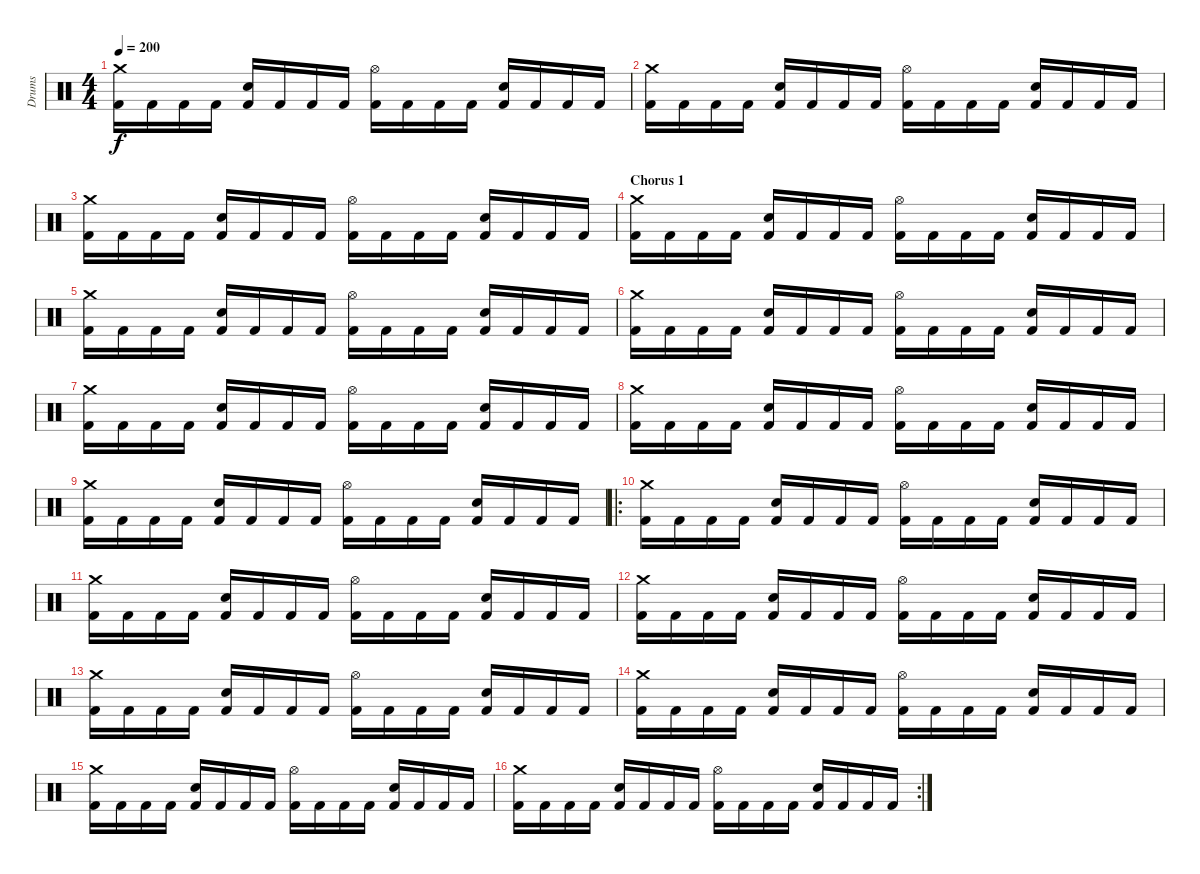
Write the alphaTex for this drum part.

\track ("Drums" "Drums") {instrument percussion}
\staff {score}
\articulation defaults
\ts (4 4)
\tempo 200
\clef neutral
\ks c
("Kick (hit) 2" "Crash medium (hit)").16{dy f} "Kick (hit) 2".16 "Kick (hit) 2".16 "Kick (hit) 2".16 ("Kick (hit) 2" "Snare (hit) 2").16 "Kick (hit) 2".16 "Kick (hit) 2".16 "Kick (hit) 2".16 ("Kick (hit) 2" "Hi-Hat (open)").16 "Kick (hit) 2".16 "Kick (hit) 2".16 "Kick (hit) 2".16 ("Kick (hit) 2" "Snare (hit) 2").16 "Kick (hit) 2".16 "Kick (hit) 2".16 "Kick (hit) 2".16 |
("Kick (hit) 2" "Crash medium (hit)").16 "Kick (hit) 2".16 "Kick (hit) 2".16 "Kick (hit) 2".16 ("Kick (hit) 2" "Snare (hit) 2").16 "Kick (hit) 2".16 "Kick (hit) 2".16 "Kick (hit) 2".16 ("Kick (hit) 2" "Hi-Hat (open)").16 "Kick (hit) 2".16 "Kick (hit) 2".16 "Kick (hit) 2".16 ("Kick (hit) 2" "Snare (hit) 2").16 "Kick (hit) 2".16 "Kick (hit) 2".16 "Kick (hit) 2".16 |
("Kick (hit) 2" "Crash medium (hit)").16 "Kick (hit) 2".16 "Kick (hit) 2".16 "Kick (hit) 2".16 ("Kick (hit) 2" "Snare (hit) 2").16 "Kick (hit) 2".16 "Kick (hit) 2".16 "Kick (hit) 2".16 ("Kick (hit) 2" "Hi-Hat (open)").16 "Kick (hit) 2".16 "Kick (hit) 2".16 "Kick (hit) 2".16 ("Kick (hit) 2" "Snare (hit) 2").16 "Kick (hit) 2".16 "Kick (hit) 2".16 "Kick (hit) 2".16 |
\section ("" "Chorus 1")
("Kick (hit) 2" "Crash medium (hit)").16 "Kick (hit) 2".16 "Kick (hit) 2".16 "Kick (hit) 2".16 ("Kick (hit) 2" "Snare (hit) 2").16 "Kick (hit) 2".16 "Kick (hit) 2".16 "Kick (hit) 2".16 ("Kick (hit) 2" "Hi-Hat (open)").16 "Kick (hit) 2".16 "Kick (hit) 2".16 "Kick (hit) 2".16 ("Kick (hit) 2" "Snare (hit) 2").16 "Kick (hit) 2".16 "Kick (hit) 2".16 "Kick (hit) 2".16 |
("Kick (hit) 2" "Crash medium (hit)").16 "Kick (hit) 2".16 "Kick (hit) 2".16 "Kick (hit) 2".16 ("Kick (hit) 2" "Snare (hit) 2").16 "Kick (hit) 2".16 "Kick (hit) 2".16 "Kick (hit) 2".16 ("Kick (hit) 2" "Hi-Hat (open)").16 "Kick (hit) 2".16 "Kick (hit) 2".16 "Kick (hit) 2".16 ("Kick (hit) 2" "Snare (hit) 2").16 "Kick (hit) 2".16 "Kick (hit) 2".16 "Kick (hit) 2".16 |
("Kick (hit) 2" "Crash medium (hit)").16 "Kick (hit) 2".16 "Kick (hit) 2".16 "Kick (hit) 2".16 ("Kick (hit) 2" "Snare (hit) 2").16 "Kick (hit) 2".16 "Kick (hit) 2".16 "Kick (hit) 2".16 ("Kick (hit) 2" "Hi-Hat (open)").16 "Kick (hit) 2".16 "Kick (hit) 2".16 "Kick (hit) 2".16 ("Kick (hit) 2" "Snare (hit) 2").16 "Kick (hit) 2".16 "Kick (hit) 2".16 "Kick (hit) 2".16 |
("Kick (hit) 2" "Crash medium (hit)").16 "Kick (hit) 2".16 "Kick (hit) 2".16 "Kick (hit) 2".16 ("Kick (hit) 2" "Snare (hit) 2").16 "Kick (hit) 2".16 "Kick (hit) 2".16 "Kick (hit) 2".16 ("Kick (hit) 2" "Hi-Hat (open)").16 "Kick (hit) 2".16 "Kick (hit) 2".16 "Kick (hit) 2".16 ("Kick (hit) 2" "Snare (hit) 2").16 "Kick (hit) 2".16 "Kick (hit) 2".16 "Kick (hit) 2".16 |
("Kick (hit) 2" "Crash medium (hit)").16 "Kick (hit) 2".16 "Kick (hit) 2".16 "Kick (hit) 2".16 ("Kick (hit) 2" "Snare (hit) 2").16 "Kick (hit) 2".16 "Kick (hit) 2".16 "Kick (hit) 2".16 ("Kick (hit) 2" "Hi-Hat (open)").16 "Kick (hit) 2".16 "Kick (hit) 2".16 "Kick (hit) 2".16 ("Kick (hit) 2" "Snare (hit) 2").16 "Kick (hit) 2".16 "Kick (hit) 2".16 "Kick (hit) 2".16 |
("Kick (hit) 2" "Crash medium (hit)").16 "Kick (hit) 2".16 "Kick (hit) 2".16 "Kick (hit) 2".16 ("Kick (hit) 2" "Snare (hit) 2").16 "Kick (hit) 2".16 "Kick (hit) 2".16 "Kick (hit) 2".16 ("Kick (hit) 2" "Hi-Hat (open)").16 "Kick (hit) 2".16 "Kick (hit) 2".16 "Kick (hit) 2".16 ("Kick (hit) 2" "Snare (hit) 2").16 "Kick (hit) 2".16 "Kick (hit) 2".16 "Kick (hit) 2".16 |
\ro
("Kick (hit) 2" "Crash medium (hit)").16 "Kick (hit) 2".16 "Kick (hit) 2".16 "Kick (hit) 2".16 ("Kick (hit) 2" "Snare (hit) 2").16 "Kick (hit) 2".16 "Kick (hit) 2".16 "Kick (hit) 2".16 ("Kick (hit) 2" "Hi-Hat (open)").16 "Kick (hit) 2".16 "Kick (hit) 2".16 "Kick (hit) 2".16 ("Kick (hit) 2" "Snare (hit) 2").16 "Kick (hit) 2".16 "Kick (hit) 2".16 "Kick (hit) 2".16 |
("Kick (hit) 2" "Crash medium (hit)").16 "Kick (hit) 2".16 "Kick (hit) 2".16 "Kick (hit) 2".16 ("Kick (hit) 2" "Snare (hit) 2").16 "Kick (hit) 2".16 "Kick (hit) 2".16 "Kick (hit) 2".16 ("Kick (hit) 2" "Hi-Hat (open)").16 "Kick (hit) 2".16 "Kick (hit) 2".16 "Kick (hit) 2".16 ("Kick (hit) 2" "Snare (hit) 2").16 "Kick (hit) 2".16 "Kick (hit) 2".16 "Kick (hit) 2".16 |
("Kick (hit) 2" "Crash medium (hit)").16 "Kick (hit) 2".16 "Kick (hit) 2".16 "Kick (hit) 2".16 ("Kick (hit) 2" "Snare (hit) 2").16 "Kick (hit) 2".16 "Kick (hit) 2".16 "Kick (hit) 2".16 ("Kick (hit) 2" "Hi-Hat (open)").16 "Kick (hit) 2".16 "Kick (hit) 2".16 "Kick (hit) 2".16 ("Kick (hit) 2" "Snare (hit) 2").16 "Kick (hit) 2".16 "Kick (hit) 2".16 "Kick (hit) 2".16 |
("Kick (hit) 2" "Crash medium (hit)").16 "Kick (hit) 2".16 "Kick (hit) 2".16 "Kick (hit) 2".16 ("Kick (hit) 2" "Snare (hit) 2").16 "Kick (hit) 2".16 "Kick (hit) 2".16 "Kick (hit) 2".16 ("Kick (hit) 2" "Hi-Hat (open)").16 "Kick (hit) 2".16 "Kick (hit) 2".16 "Kick (hit) 2".16 ("Kick (hit) 2" "Snare (hit) 2").16 "Kick (hit) 2".16 "Kick (hit) 2".16 "Kick (hit) 2".16 |
("Kick (hit) 2" "Crash medium (hit)").16 "Kick (hit) 2".16 "Kick (hit) 2".16 "Kick (hit) 2".16 ("Kick (hit) 2" "Snare (hit) 2").16 "Kick (hit) 2".16 "Kick (hit) 2".16 "Kick (hit) 2".16 ("Kick (hit) 2" "Hi-Hat (open)").16 "Kick (hit) 2".16 "Kick (hit) 2".16 "Kick (hit) 2".16 ("Kick (hit) 2" "Snare (hit) 2").16 "Kick (hit) 2".16 "Kick (hit) 2".16 "Kick (hit) 2".16 |
("Kick (hit) 2" "Crash medium (hit)").16 "Kick (hit) 2".16 "Kick (hit) 2".16 "Kick (hit) 2".16 ("Kick (hit) 2" "Snare (hit) 2").16 "Kick (hit) 2".16 "Kick (hit) 2".16 "Kick (hit) 2".16 ("Kick (hit) 2" "Hi-Hat (open)").16 "Kick (hit) 2".16 "Kick (hit) 2".16 "Kick (hit) 2".16 ("Kick (hit) 2" "Snare (hit) 2").16 "Kick (hit) 2".16 "Kick (hit) 2".16 "Kick (hit) 2".16 |
\rc 2
("Kick (hit) 2" "Crash medium (hit)").16 "Kick (hit) 2".16 "Kick (hit) 2".16 "Kick (hit) 2".16 ("Kick (hit) 2" "Snare (hit) 2").16 "Kick (hit) 2".16 "Kick (hit) 2".16 "Kick (hit) 2".16 ("Kick (hit) 2" "Hi-Hat (open)").16 "Kick (hit) 2".16 "Kick (hit) 2".16 "Kick (hit) 2".16 ("Kick (hit) 2" "Snare (hit) 2").16 "Kick (hit) 2".16 "Kick (hit) 2".16 "Kick (hit) 2".16
